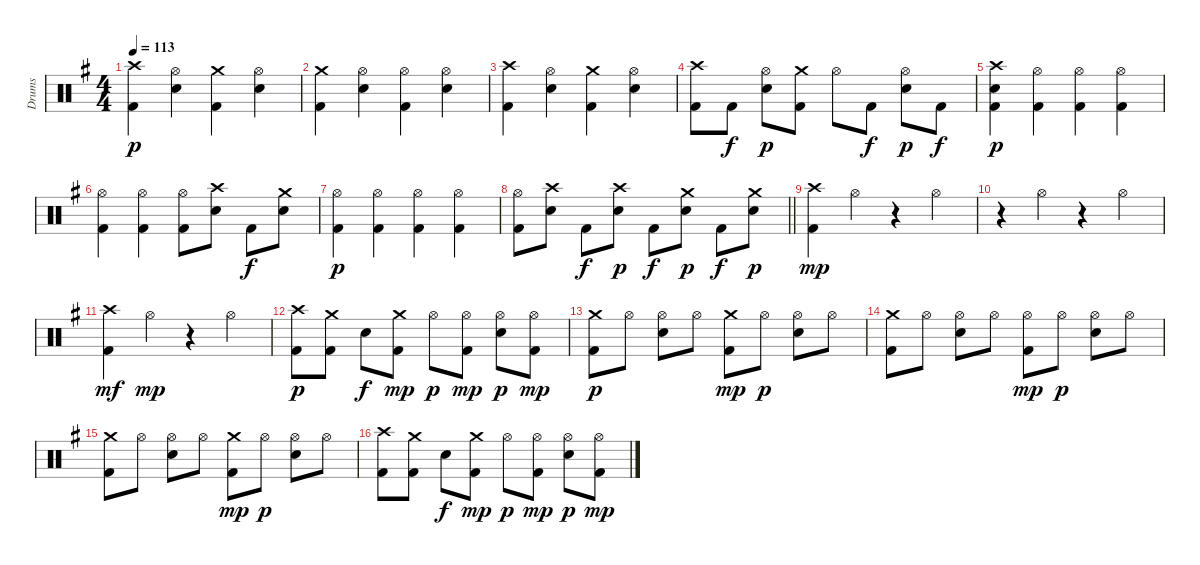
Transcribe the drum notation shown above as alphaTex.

\track ("Drums" "Drums") {instrument percussion}
\staff {score}
\articulation defaults
\ts (4 4)
\tempo 113
\clef neutral
\ks g
("Crash high (hit)" "Kick (hit) 2").4{dy p} ("Hi-Hat (open)" "Electric Snare (hit)").4 ("Crash medium (hit)" "Kick (hit) 2").4 ("Hi-Hat (open)" "Electric Snare (hit)").4 |
("Crash medium (hit)" "Kick (hit) 2").4 ("Hi-Hat (open)" "Electric Snare (hit)").4 ("Hi-Hat (open)" "Kick (hit) 2").4 ("Hi-Hat (open)" "Electric Snare (hit)").4 |
("Crash high (hit)" "Kick (hit) 2").4 ("Hi-Hat (open)" "Electric Snare (hit)").4 ("Crash medium (hit)" "Kick (hit) 2").4 ("Hi-Hat (open)" "Electric Snare (hit)").4 |
("Kick (hit) 2" "Crash high (hit)").8 "Kick (hit) 2".8{dy f} ("Electric Snare (hit)" "Hi-Hat (open)").8{dy p} ("Kick (hit) 2" "Crash medium (hit)").8 "Hi-Hat (open)".8 "Kick (hit) 2".8{dy f} ("Electric Snare (hit)" "Hi-Hat (open)").8{dy p} "Kick (hit) 2".8{dy f} |
("Crash high (hit)" "Kick (hit) 2" "Electric Snare (hit)").4{dy p} ("Hi-Hat (open)" "Kick (hit) 2").4 ("Hi-Hat (open)" "Kick (hit) 2").4 ("Hi-Hat (open)" "Kick (hit) 2").4 |
("Hi-Hat (open)" "Kick (hit) 2").4 ("Hi-Hat (open)" "Kick (hit) 2").4 ("Hi-Hat (open)" "Kick (hit) 2").8 ("Electric Snare (hit)" "Crash high (hit)").8 "Kick (hit) 2".8{dy f} ("Electric Snare (hit)" "Crash medium (hit)").8 |
("Hi-Hat (open)" "Kick (hit) 2").4{dy p} ("Hi-Hat (open)" "Kick (hit) 2").4 ("Hi-Hat (open)" "Kick (hit) 2").4 ("Hi-Hat (open)" "Kick (hit) 2").4 |
\barLineRight lightlight
("Hi-Hat (open)" "Kick (hit) 2").8 ("Electric Snare (hit)" "Crash high (hit)").8 "Kick (hit) 2".8{dy f} ("Electric Snare (hit)" "Crash high (hit)").8{dy p} "Kick (hit) 2".8{dy f} ("Electric Snare (hit)" "Crash medium (hit)").8{dy p} "Kick (hit) 2".8{dy f} ("Electric Snare (hit)" "Crash medium (hit)").8{dy p} |
("Kick (hit) 2" "Crash high (hit)").4{dy mp} "Hi-Hat (open)".4 r.4 "Hi-Hat (open)".4 |
r.4 "Hi-Hat (open)".4 r.4 "Hi-Hat (open)".4 |
("Kick (hit) 2" "Crash high (hit)").4{dy mf} "Hi-Hat (open)".4{dy mp} r.4 "Hi-Hat (open)".4 |
("Kick (hit) 2" "Crash high (hit)").8{dy p} ("Kick (hit) 2" "Crash medium (hit)").8 "Electric Snare (hit)".8{dy f} ("Kick (hit) 2" "Crash medium (hit)").8{dy mp} "Hi-Hat (open)".8{dy p} ("Kick (hit) 2" "Hi-Hat (open)").8{dy mp} ("Electric Snare (hit)" "Hi-Hat (open)").8{dy p} ("Kick (hit) 2" "Hi-Hat (open)").8{dy mp} |
("Crash medium (hit)" "Kick (hit) 2").8{dy p} "Hi-Hat (open)".8 ("Hi-Hat (open)" "Electric Snare (hit)").8 "Hi-Hat (open)".8 ("Crash medium (hit)" "Kick (hit) 2").8{dy mp} "Hi-Hat (open)".8{dy p} ("Hi-Hat (open)" "Electric Snare (hit)").8 "Hi-Hat (open)".8 |
("Crash medium (hit)" "Kick (hit) 2").8 "Hi-Hat (open)".8 ("Hi-Hat (open)" "Electric Snare (hit)").8 "Hi-Hat (open)".8 ("Hi-Hat (open)" "Kick (hit) 2").8{dy mp} "Hi-Hat (open)".8{dy p} ("Hi-Hat (open)" "Electric Snare (hit)").8 "Hi-Hat (open)".8 |
("Crash medium (hit)" "Kick (hit) 2").8 "Hi-Hat (open)".8 ("Hi-Hat (open)" "Electric Snare (hit)").8 "Hi-Hat (open)".8 ("Crash medium (hit)" "Kick (hit) 2").8{dy mp} "Hi-Hat (open)".8{dy p} ("Hi-Hat (open)" "Electric Snare (hit)").8 "Hi-Hat (open)".8 |
("Kick (hit) 2" "Crash high (hit)").8 ("Kick (hit) 2" "Crash medium (hit)").8 "Electric Snare (hit)".8{dy f} ("Kick (hit) 2" "Crash medium (hit)").8{dy mp} "Hi-Hat (open)".8{dy p} ("Kick (hit) 2" "Hi-Hat (open)").8{dy mp} ("Electric Snare (hit)" "Hi-Hat (open)").8{dy p} ("Kick (hit) 2" "Hi-Hat (open)").8{dy mp}
